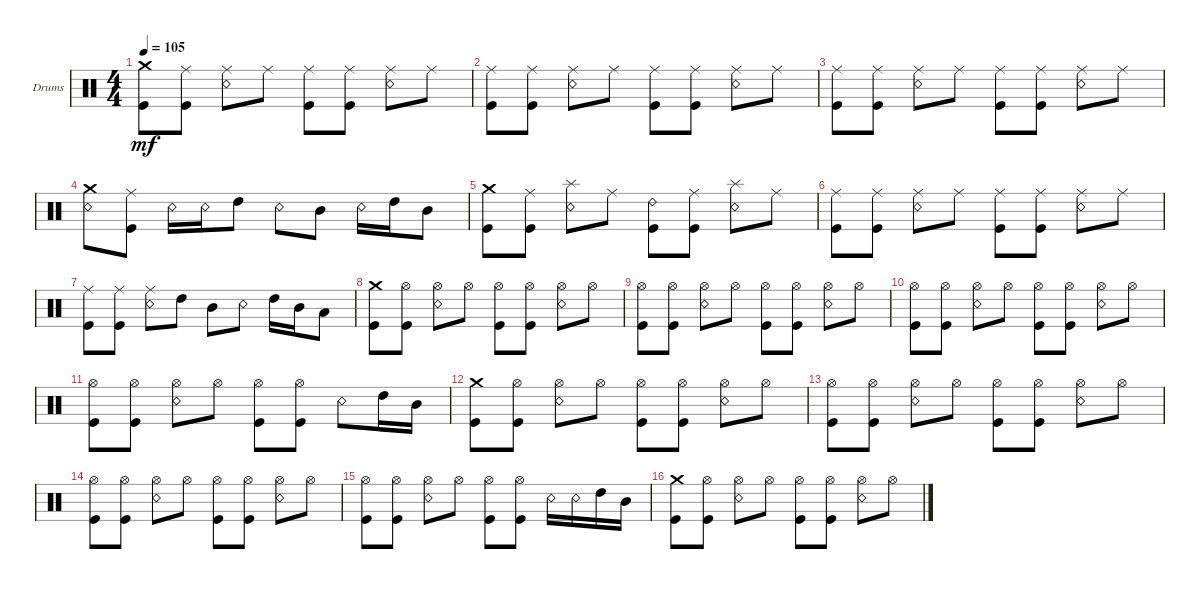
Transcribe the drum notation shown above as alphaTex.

\bracketExtendMode groupsimilarinstruments
\firstSystemTrackNameOrientation horizontal
\otherSystemsTrackNameOrientation horizontal
\track ("Алексей Мещеряков" "Drums") {instrument percussion}
\staff {score}
\articulation defaults
\ts (4 4)
\tempo 105
\clef neutral
\ks c
("Kick (hit)" "Crash medium (hit)").8{dy mf} ("Kick (hit)" "Ride (middle)").8 ("Snare (rim shot)" "Ride (middle)").8 "Ride (middle)".8 ("Ride (middle)" "Kick (hit)").8 ("Ride (middle)" "Kick (hit)").8 ("Ride (middle)" "Snare (rim shot)").8 "Ride (middle)".8 |
("Kick (hit)" "Ride (middle)").8 ("Kick (hit)" "Ride (middle)").8 ("Snare (rim shot)" "Ride (middle)").8 "Ride (middle)".8 ("Ride (middle)" "Kick (hit)").8 ("Ride (middle)" "Kick (hit)").8 ("Ride (middle)" "Snare (rim shot)").8 "Ride (middle)".8 |
("Kick (hit)" "Ride (middle)").8 ("Kick (hit)" "Ride (middle)").8 ("Snare (rim shot)" "Ride (middle)").8 "Ride (middle)".8 ("Ride (middle)" "Kick (hit)").8 ("Ride (middle)" "Kick (hit)").8 ("Ride (middle)" "Snare (rim shot)").8 "Ride (middle)".8 |
("Snare (rim shot)" "Crash medium (hit)").8 ("Kick (hit)" "Ride (middle)").8 "Snare (rim shot)".16 "Snare (rim shot)".16 "High Tom (hit)".8 "Snare (rim shot)".8 "Mid Tom (hit)".8 "Snare (rim shot)".16 "High Tom (hit)".16 "Mid Tom (hit)".8 |
("Kick (hit)" "Crash medium (hit)").8 ("Kick (hit)" "Ride (middle)").8 ("Snare (rim shot)" "Splash (hit)").8 "Ride (middle)".8 ("Ride (bell) 2" "Kick (hit)").8 ("Kick (hit)" "Ride (middle)").8 ("Snare (rim shot)" "Splash (hit)").8 "Ride (middle)".8 |
("Kick (hit)" "Ride (middle)").8 ("Kick (hit)" "Ride (middle)").8 ("Snare (rim shot)" "Ride (middle)").8 "Ride (middle)".8 ("Ride (middle)" "Kick (hit)").8 ("Ride (middle)" "Kick (hit)").8 ("Ride (middle)" "Snare (rim shot)").8 "Ride (middle)".8 |
("Kick (hit)" "Ride (middle)").8 ("Kick (hit)" "Ride (middle)").8 ("Snare (rim shot)" "Ride (middle)").8 "High Tom (hit)".8 "Mid Tom (hit)".8 "Snare (rim shot)".8 "High Tom (hit)".16 "Mid Tom (hit)".16 "Low Tom (hit)".8 |
("Kick (hit)" "Crash medium (hit)").8 ("Kick (hit)" "Hi-Hat (open)").8 ("Snare (rim shot)" "Hi-Hat (open)").8 "Hi-Hat (open)".8 ("Kick (hit)" "Hi-Hat (open)").8 ("Kick (hit)" "Hi-Hat (open)").8 ("Snare (rim shot)" "Hi-Hat (open)").8 "Hi-Hat (open)".8 |
("Kick (hit)" "Hi-Hat (open)").8 ("Kick (hit)" "Hi-Hat (open)").8 ("Snare (rim shot)" "Hi-Hat (open)").8 "Hi-Hat (open)".8 ("Kick (hit)" "Hi-Hat (open)").8 ("Kick (hit)" "Hi-Hat (open)").8 ("Snare (rim shot)" "Hi-Hat (open)").8 "Hi-Hat (open)".8 |
("Kick (hit)" "Hi-Hat (open)").8 ("Kick (hit)" "Hi-Hat (open)").8 ("Snare (rim shot)" "Hi-Hat (open)").8 "Hi-Hat (open)".8 ("Kick (hit)" "Hi-Hat (open)").8 ("Kick (hit)" "Hi-Hat (open)").8 ("Snare (rim shot)" "Hi-Hat (open)").8 "Hi-Hat (open)".8 |
("Kick (hit)" "Hi-Hat (open)").8 ("Kick (hit)" "Hi-Hat (open)").8 ("Snare (rim shot)" "Hi-Hat (open)").8 "Hi-Hat (open)".8 ("Kick (hit)" "Hi-Hat (open)").8 ("Kick (hit)" "Hi-Hat (open)").8 "Snare (rim shot)".8 "High Tom (hit)".16 "Mid Tom (hit)".16 |
("Kick (hit)" "Crash medium (hit)").8 ("Kick (hit)" "Hi-Hat (open)").8 ("Snare (rim shot)" "Hi-Hat (open)").8 "Hi-Hat (open)".8 ("Kick (hit)" "Hi-Hat (open)").8 ("Kick (hit)" "Hi-Hat (open)").8 ("Snare (rim shot)" "Hi-Hat (open)").8 "Hi-Hat (open)".8 |
("Kick (hit)" "Hi-Hat (open)").8 ("Kick (hit)" "Hi-Hat (open)").8 ("Snare (rim shot)" "Hi-Hat (open)").8 "Hi-Hat (open)".8 ("Kick (hit)" "Hi-Hat (open)").8 ("Kick (hit)" "Hi-Hat (open)").8 ("Snare (rim shot)" "Hi-Hat (open)").8 "Hi-Hat (open)".8 |
("Kick (hit)" "Hi-Hat (open)").8 ("Kick (hit)" "Hi-Hat (open)").8 ("Snare (rim shot)" "Hi-Hat (open)").8 "Hi-Hat (open)".8 ("Kick (hit)" "Hi-Hat (open)").8 ("Kick (hit)" "Hi-Hat (open)").8 ("Snare (rim shot)" "Hi-Hat (open)").8 "Hi-Hat (open)".8 |
("Kick (hit)" "Hi-Hat (open)").8 ("Kick (hit)" "Hi-Hat (open)").8 ("Snare (rim shot)" "Hi-Hat (open)").8 "Hi-Hat (open)".8 ("Kick (hit)" "Hi-Hat (open)").8 ("Kick (hit)" "Hi-Hat (open)").8 "Snare (rim shot)".16 "Snare (rim shot)".16 "High Tom (hit)".16 "Mid Tom (hit)".16 |
("Kick (hit)" "Crash medium (hit)").8 ("Kick (hit)" "Hi-Hat (open)").8 ("Snare (rim shot)" "Hi-Hat (open)").8 "Hi-Hat (open)".8 ("Kick (hit)" "Hi-Hat (open)").8 ("Kick (hit)" "Hi-Hat (open)").8 ("Snare (rim shot)" "Hi-Hat (open)").8 "Hi-Hat (open)".8
